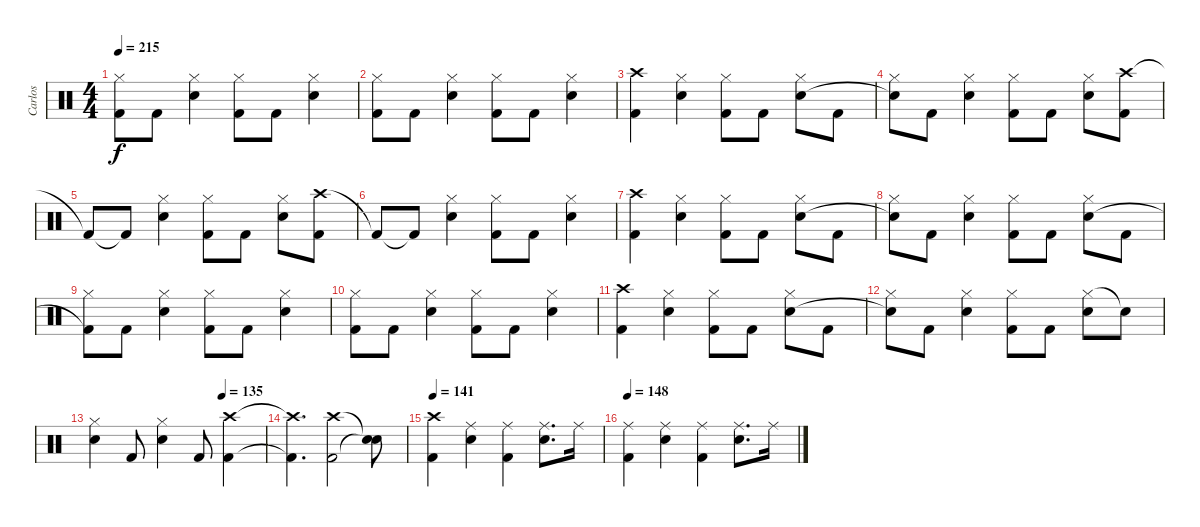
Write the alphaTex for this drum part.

\track ("Carlos" "Carlos") {instrument percussion}
\staff {score}
\articulation defaults
\ts (4 4)
\tempo 215
\clef neutral
\ks c
("Hi-Hat (closed)" "Kick (hit) 2"{t}).8{dy f} "Kick (hit) 2".8 ("Hi-Hat (closed)" "Snare (hit) 2").4 ("Hi-Hat (closed)" "Kick (hit) 2").8 "Kick (hit) 2".8 ("Hi-Hat (closed)" "Snare (hit) 2").4 |
("Hi-Hat (closed)" "Kick (hit) 2").8 "Kick (hit) 2".8 ("Hi-Hat (closed)" "Snare (hit) 2").4 ("Hi-Hat (closed)" "Kick (hit) 2").8 "Kick (hit) 2".8 ("Hi-Hat (closed)" "Snare (hit) 2").4 |
("Crash high (hit)" "Kick (hit) 2").4 ("Hi-Hat (closed)" "Snare (hit) 2").4 ("Hi-Hat (closed)" "Kick (hit) 2").8 "Kick (hit) 2".8 ("Hi-Hat (closed)" "Snare (hit) 2").8 "Kick (hit) 2".8 |
("Hi-Hat (closed)" "Snare (hit)"{t}).8 "Kick (hit) 2".8 ("Hi-Hat (closed)" "Snare (hit) 2").4 ("Hi-Hat (closed)" "Kick (hit) 2").8 "Kick (hit) 2".8 ("Hi-Hat (closed)" "Snare (hit) 2").8 ("Crash high (hit)" "Kick (hit) 2").8 |
"Kick (hit) 2"{t}.8 "Kick (hit) 2"{t}.8 ("Hi-Hat (closed)" "Snare (hit) 2").4 ("Hi-Hat (closed)" "Kick (hit) 2").8 "Kick (hit) 2".8 ("Hi-Hat (closed)" "Snare (hit) 2").8 ("Crash high (hit)" "Kick (hit) 2").8 |
"Kick (hit) 2"{t}.8 "Kick (hit) 2"{t}.8 ("Hi-Hat (closed)" "Snare (hit) 2").4 ("Hi-Hat (closed)" "Kick (hit) 2").8 "Kick (hit) 2".8 ("Hi-Hat (closed)" "Snare (hit) 2").4 |
("Crash high (hit)" "Kick (hit) 2").4 ("Hi-Hat (closed)" "Snare (hit) 2").4 ("Hi-Hat (closed)" "Kick (hit) 2").8 "Kick (hit) 2".8 ("Hi-Hat (closed)" "Snare (hit) 2").8 "Kick (hit) 2".8 |
("Hi-Hat (closed)" "Snare (hit)"{t}).8 "Kick (hit) 2".8 ("Hi-Hat (closed)" "Snare (hit) 2").4 ("Hi-Hat (closed)" "Kick (hit) 2").8 "Kick (hit) 2".8 ("Hi-Hat (closed)" "Snare (hit) 2").8 "Kick (hit) 2".8 |
("Hi-Hat (closed)" "Kick (hit) 2"{t}).8 "Kick (hit) 2".8 ("Hi-Hat (closed)" "Snare (hit) 2").4 ("Hi-Hat (closed)" "Kick (hit) 2").8 "Kick (hit) 2".8 ("Hi-Hat (closed)" "Snare (hit) 2").4 |
("Hi-Hat (closed)" "Kick (hit) 2").8 "Kick (hit) 2".8 ("Hi-Hat (closed)" "Snare (hit) 2").4 ("Hi-Hat (closed)" "Kick (hit) 2").8 "Kick (hit) 2".8 ("Hi-Hat (closed)" "Snare (hit) 2").4 |
("Crash high (hit)" "Kick (hit) 2").4 ("Hi-Hat (closed)" "Snare (hit) 2").4 ("Hi-Hat (closed)" "Kick (hit) 2").8 "Kick (hit) 2".8 ("Hi-Hat (closed)" "Snare (hit) 2").8 "Kick (hit) 2".8 |
("Hi-Hat (closed)" "Snare (hit)"{t}).8 "Kick (hit) 2".8 ("Hi-Hat (closed)" "Snare (hit) 2").4 ("Hi-Hat (closed)" "Kick (hit) 2").8 "Kick (hit) 2".8 ("Hi-Hat (closed)" "Snare (hit) 2").8 "Snare (hit)"{t}.8 |
\tempo (135 0.75)
("Hi-Hat (closed)" "Snare (hit) 2").4 "Kick (hit) 2".8 ("Hi-Hat (closed)" "Snare (hit) 2").4 "Kick (hit) 2".8 ("Crash high (hit)" "Kick (hit) 2").4 |
("Crash high (hit)"{t} "Kick (hit) 2"{t}).4{d} ("Crash high (hit)" "Kick (hit) 2").2 ("Snare (hit)"{t} "Snare (hit)"{t}).8 |
\tempo 141
("Crash high (hit)" "Kick (hit) 2").4 ("Ride (middle)" "Snare (hit) 2").4 ("Ride (middle)" "Kick (hit) 2").4 ("Ride (middle)" "Snare (hit) 2").8{d} "Ride (middle)".16 |
\tempo 148
("Ride (middle)" "Kick (hit) 2").4 ("Ride (middle)" "Snare (hit) 2").4 ("Ride (middle)" "Kick (hit) 2").4 ("Ride (middle)" "Snare (hit) 2").8{d} "Ride (middle)".16
